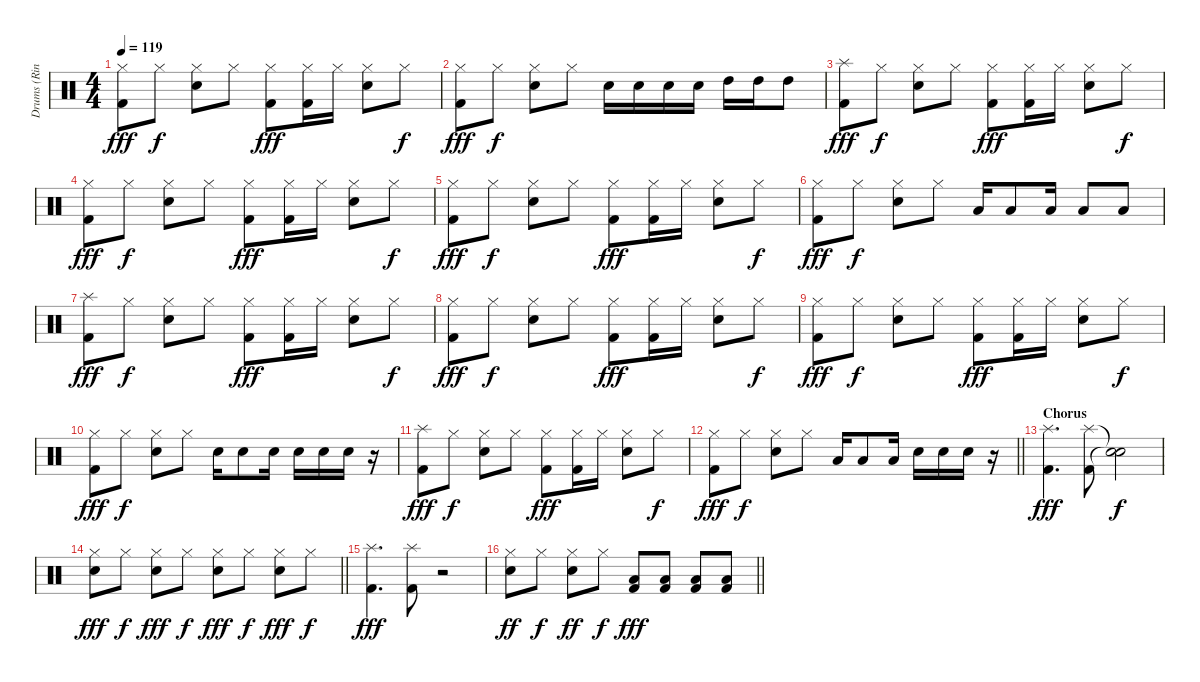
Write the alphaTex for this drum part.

\track ("Drums (Ringo Starr)" "Drums (Rin") {instrument percussion}
\staff {score}
\articulation defaults
\ts (4 4)
\tempo 119
\clef neutral
\ks c
("Hi-Hat (closed)" "Kick (hit) 2").8{dy fff} "Hi-Hat (closed)".8{dy f} ("Hi-Hat (closed)" "Snare (hit) 2").8 "Hi-Hat (closed)".8 ("Hi-Hat (closed)" "Kick (hit) 2").8{dy fff} ("Hi-Hat (closed)" "Kick (hit) 2").16 "Hi-Hat (closed)".16 ("Hi-Hat (closed)" "Snare (hit) 2").8 "Hi-Hat (closed)".8{dy f} |
("Hi-Hat (closed)" "Kick (hit) 2").8{dy fff} "Hi-Hat (closed)".8{dy f} ("Hi-Hat (closed)" "Snare (hit) 2").8 "Hi-Hat (closed)".8 "Snare (hit) 2".16 "Snare (hit) 2".16 "Snare (hit) 2".16 "Snare (hit) 2".16 "High Tom (hit)".16 "High Tom (hit)".16 "High Tom (hit)".8 |
("Splash (hit)" "Kick (hit) 2").8{dy fff} "Hi-Hat (closed)".8{dy f} ("Hi-Hat (closed)" "Snare (hit) 2").8 "Hi-Hat (closed)".8 ("Hi-Hat (closed)" "Kick (hit) 2").8{dy fff} ("Hi-Hat (closed)" "Kick (hit) 2").16 "Hi-Hat (closed)".16 ("Hi-Hat (closed)" "Snare (hit) 2").8 "Hi-Hat (closed)".8{dy f} |
("Hi-Hat (closed)" "Kick (hit) 2").8{dy fff} "Hi-Hat (closed)".8{dy f} ("Hi-Hat (closed)" "Snare (hit) 2").8 "Hi-Hat (closed)".8 ("Hi-Hat (closed)" "Kick (hit) 2").8{dy fff} ("Hi-Hat (closed)" "Kick (hit) 2").16 "Hi-Hat (closed)".16 ("Hi-Hat (closed)" "Snare (hit) 2").8 "Hi-Hat (closed)".8{dy f} |
("Hi-Hat (closed)" "Kick (hit) 2").8{dy fff} "Hi-Hat (closed)".8{dy f} ("Hi-Hat (closed)" "Snare (hit) 2").8 "Hi-Hat (closed)".8 ("Hi-Hat (closed)" "Kick (hit) 2").8{dy fff} ("Hi-Hat (closed)" "Kick (hit) 2").16 "Hi-Hat (closed)".16 ("Hi-Hat (closed)" "Snare (hit) 2").8 "Hi-Hat (closed)".8{dy f} |
("Hi-Hat (closed)" "Kick (hit) 2").8{dy fff} "Hi-Hat (closed)".8{dy f} ("Hi-Hat (closed)" "Snare (hit) 2").8 "Hi-Hat (closed)".8 "Low Floor Tom (hit)".16 "Low Floor Tom (hit)".8 "Low Floor Tom (hit)".16 "Low Floor Tom (hit)".8 "Low Floor Tom (hit)".8 |
("Splash (hit)" "Kick (hit) 2").8{dy fff} "Hi-Hat (closed)".8{dy f} ("Hi-Hat (closed)" "Snare (hit) 2").8 "Hi-Hat (closed)".8 ("Hi-Hat (closed)" "Kick (hit) 2").8{dy fff} ("Hi-Hat (closed)" "Kick (hit) 2").16 "Hi-Hat (closed)".16 ("Hi-Hat (closed)" "Snare (hit) 2").8 "Hi-Hat (closed)".8{dy f} |
("Hi-Hat (closed)" "Kick (hit) 2").8{dy fff} "Hi-Hat (closed)".8{dy f} ("Hi-Hat (closed)" "Snare (hit) 2").8 "Hi-Hat (closed)".8 ("Hi-Hat (closed)" "Kick (hit) 2").8{dy fff} ("Hi-Hat (closed)" "Kick (hit) 2").16 "Hi-Hat (closed)".16 ("Hi-Hat (closed)" "Snare (hit) 2").8 "Hi-Hat (closed)".8{dy f} |
("Hi-Hat (closed)" "Kick (hit) 2").8{dy fff} "Hi-Hat (closed)".8{dy f} ("Hi-Hat (closed)" "Snare (hit) 2").8 "Hi-Hat (closed)".8 ("Hi-Hat (closed)" "Kick (hit) 2").8{dy fff} ("Hi-Hat (closed)" "Kick (hit) 2").16 "Hi-Hat (closed)".16 ("Hi-Hat (closed)" "Snare (hit) 2").8 "Hi-Hat (closed)".8{dy f} |
("Hi-Hat (closed)" "Kick (hit) 2").8{dy fff} "Hi-Hat (closed)".8{dy f} ("Hi-Hat (closed)" "Snare (hit) 2").8 "Hi-Hat (closed)".8 "Snare (hit) 2".16 "Snare (hit) 2".8 "Snare (hit) 2".16 "Snare (hit) 2".16 "Snare (hit) 2".16 "Snare (hit) 2".16 r.16 |
("Splash (hit)" "Kick (hit) 2").8{dy fff} "Hi-Hat (closed)".8{dy f} ("Hi-Hat (closed)" "Snare (hit) 2").8 "Hi-Hat (closed)".8 ("Hi-Hat (closed)" "Kick (hit) 2").8{dy fff} ("Hi-Hat (closed)" "Kick (hit) 2").16 "Hi-Hat (closed)".16 ("Hi-Hat (closed)" "Snare (hit) 2").8 "Hi-Hat (closed)".8{dy f} |
\barLineRight lightlight
("Hi-Hat (closed)" "Kick (hit) 2").8{dy fff} "Hi-Hat (closed)".8{dy f} ("Hi-Hat (closed)" "Snare (hit) 2").8 "Hi-Hat (closed)".8 "Low Floor Tom (hit)".16 "Low Floor Tom (hit)".8 "Low Floor Tom (hit)".16 "Snare (hit) 2".16 "Snare (hit) 2".16 "Snare (hit) 2".16 r.16 |
\section ("" "Chorus")
("Splash (hit)" "Kick (hit) 2").4{d dy fff} ("Splash (hit)" "Kick (hit) 2").8 ("Snare (hit)"{t} "Snare (hit)"{t}).2{dy f} |
\barLineRight lightlight
("Hi-Hat (closed)" "Snare (hit) 2").8{dy fff} "Hi-Hat (closed)".8{dy f} ("Hi-Hat (closed)" "Snare (hit) 2").8{dy fff} "Hi-Hat (closed)".8{dy f} ("Hi-Hat (closed)" "Snare (hit) 2").8{dy fff} "Hi-Hat (closed)".8{dy f} ("Hi-Hat (closed)" "Snare (hit) 2").8{dy fff} "Hi-Hat (closed)".8{dy f} |
("Splash (hit)" "Kick (hit) 2").4{d dy fff} ("Splash (hit)" "Kick (hit) 2").8 r.2 |
\barLineRight lightlight
("Hi-Hat (closed)" "Snare (hit) 2").8{dy ff} "Hi-Hat (closed)".8{dy f} ("Hi-Hat (closed)" "Snare (hit) 2").8{dy ff} "Hi-Hat (closed)".8{dy f} ("Low Floor Tom (hit)" "Kick (hit) 2").8{dy fff} ("Low Floor Tom (hit)" "Kick (hit) 2").8 ("Low Floor Tom (hit)" "Kick (hit) 2").8 ("Low Floor Tom (hit)" "Kick (hit) 2").8
